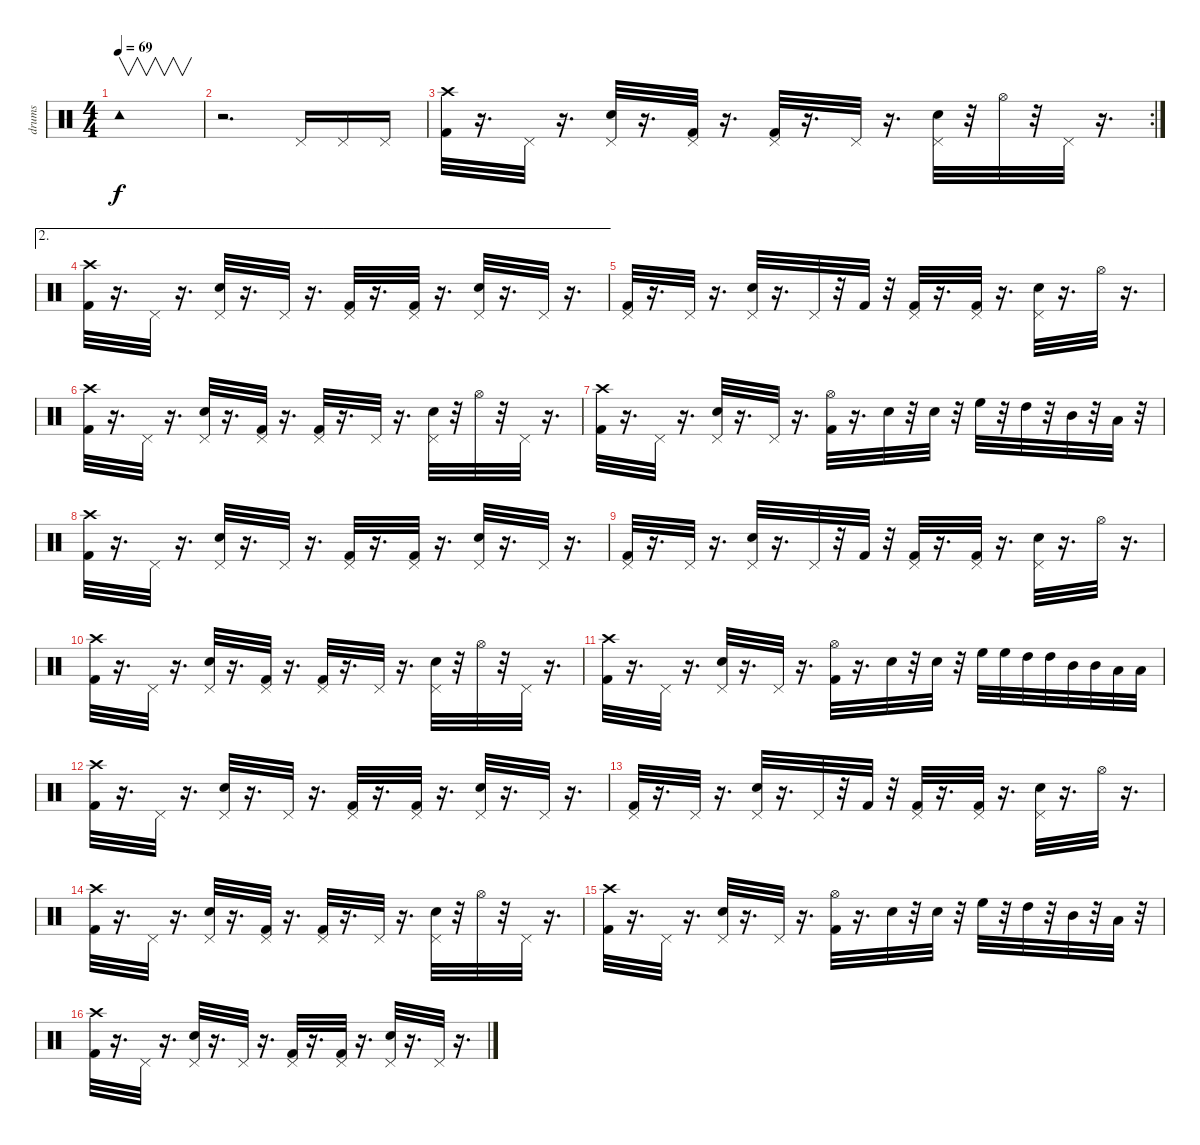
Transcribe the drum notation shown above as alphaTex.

\track ("drums" "drums") {instrument percussion}
\staff {score}
\articulation defaults
\ts (4 4)
\tempo 69
\clef neutral
\ks c "Tambourine (hit)".1{v dy f}
|
r.2{d} "Pedal Hi-Hat (hit)".16 "Pedal Hi-Hat (hit)".16 "Pedal Hi-Hat (hit)".16 |
\rc 2
("Crash high (hit)" "Kick (hit) 2").32 r.16{d} "Pedal Hi-Hat (hit)".32 r.16{d} ("Pedal Hi-Hat (hit)" "Snare (hit) 2").32 r.16{d} ("Pedal Hi-Hat (hit)" "Kick (hit) 2").32 r.16{d} ("Pedal Hi-Hat (hit)" "Kick (hit) 2").32 r.16{d} "Pedal Hi-Hat (hit)".32 r.16{d} ("Pedal Hi-Hat (hit)" "Snare (hit) 2").32 r.32 "Hi-Hat (open)".32 r.32 "Pedal Hi-Hat (hit)".32 r.16{d} |
\ae 2
("Crash high (hit)" "Kick (hit) 2").32 r.16{d} "Pedal Hi-Hat (hit)".32 r.16{d} ("Pedal Hi-Hat (hit)" "Snare (hit) 2").32 r.16{d} "Pedal Hi-Hat (hit)".32 r.16{d} ("Pedal Hi-Hat (hit)" "Kick (hit) 2").32 r.16{d} ("Pedal Hi-Hat (hit)" "Kick (hit) 2").32 r.16{d} ("Pedal Hi-Hat (hit)" "Snare (hit) 2").32 r.16{d} "Pedal Hi-Hat (hit)".32 r.16{d} |
("Pedal Hi-Hat (hit)" "Kick (hit) 2").32 r.16{d} "Pedal Hi-Hat (hit)".32 r.16{d} ("Pedal Hi-Hat (hit)" "Snare (hit) 2").32 r.16{d} "Pedal Hi-Hat (hit)".32 r.32 "Kick (hit) 2".32 r.32 ("Pedal Hi-Hat (hit)" "Kick (hit) 2").32 r.16{d} ("Pedal Hi-Hat (hit)" "Kick (hit) 2").32 r.16{d} ("Pedal Hi-Hat (hit)" "Snare (hit) 2").32 r.16{d} "Hi-Hat (open)".32 r.16{d} |
("Crash high (hit)" "Kick (hit) 2").32 r.16{d} "Pedal Hi-Hat (hit)".32 r.16{d} ("Pedal Hi-Hat (hit)" "Snare (hit) 2").32 r.16{d} ("Pedal Hi-Hat (hit)" "Kick (hit) 2").32 r.16{d} ("Pedal Hi-Hat (hit)" "Kick (hit) 2").32 r.16{d} "Pedal Hi-Hat (hit)".32 r.16{d} ("Pedal Hi-Hat (hit)" "Snare (hit) 2").32 r.32 "Hi-Hat (open)".32 r.32 "Pedal Hi-Hat (hit)".32 r.16{d} |
("Crash high (hit)" "Kick (hit) 2").32 r.16{d} "Pedal Hi-Hat (hit)".32 r.16{d} ("Pedal Hi-Hat (hit)" "Snare (hit) 2").32 r.16{d} "Pedal Hi-Hat (hit)".32 r.16{d} ("Hi-Hat (open)" "Kick (hit) 2").32 r.16{d} "Snare (hit) 2".32 r.32 "Snare (hit) 2".32 r.32 "High Floor Tom (hit)".32 r.32 "High Tom (hit)".32 r.32 "Mid Tom (hit)".32 r.32 "Low Tom (hit)".32 r.32 |
("Crash high (hit)" "Kick (hit) 2").32 r.16{d} "Pedal Hi-Hat (hit)".32 r.16{d} ("Pedal Hi-Hat (hit)" "Snare (hit) 2").32 r.16{d} "Pedal Hi-Hat (hit)".32 r.16{d} ("Pedal Hi-Hat (hit)" "Kick (hit) 2").32 r.16{d} ("Pedal Hi-Hat (hit)" "Kick (hit) 2").32 r.16{d} ("Pedal Hi-Hat (hit)" "Snare (hit) 2").32 r.16{d} "Pedal Hi-Hat (hit)".32 r.16{d} |
("Pedal Hi-Hat (hit)" "Kick (hit) 2").32 r.16{d} "Pedal Hi-Hat (hit)".32 r.16{d} ("Pedal Hi-Hat (hit)" "Snare (hit) 2").32 r.16{d} "Pedal Hi-Hat (hit)".32 r.32 "Kick (hit) 2".32 r.32 ("Pedal Hi-Hat (hit)" "Kick (hit) 2").32 r.16{d} ("Pedal Hi-Hat (hit)" "Kick (hit) 2").32 r.16{d} ("Pedal Hi-Hat (hit)" "Snare (hit) 2").32 r.16{d} "Hi-Hat (open)".32 r.16{d} |
("Crash high (hit)" "Kick (hit) 2").32 r.16{d} "Pedal Hi-Hat (hit)".32 r.16{d} ("Pedal Hi-Hat (hit)" "Snare (hit) 2").32 r.16{d} ("Pedal Hi-Hat (hit)" "Kick (hit) 2").32 r.16{d} ("Pedal Hi-Hat (hit)" "Kick (hit) 2").32 r.16{d} "Pedal Hi-Hat (hit)".32 r.16{d} ("Pedal Hi-Hat (hit)" "Snare (hit) 2").32 r.32 "Hi-Hat (open)".32 r.32 "Pedal Hi-Hat (hit)".32 r.16{d} |
("Crash high (hit)" "Kick (hit) 2").32 r.16{d} "Pedal Hi-Hat (hit)".32 r.16{d} ("Pedal Hi-Hat (hit)" "Snare (hit) 2").32 r.16{d} "Pedal Hi-Hat (hit)".32 r.16{d} ("Hi-Hat (open)" "Kick (hit) 2").32 r.16{d} "Snare (hit) 2".32 r.32 "Snare (hit) 2".32 r.32 "High Floor Tom (hit)".32 "High Floor Tom (hit)".32 "High Tom (hit)".32 "High Tom (hit)".32 "Mid Tom (hit)".32 "Mid Tom (hit)".32 "Low Tom (hit)".32 "Low Tom (hit)".32 |
("Crash high (hit)" "Kick (hit) 2").32 r.16{d} "Pedal Hi-Hat (hit)".32 r.16{d} ("Pedal Hi-Hat (hit)" "Snare (hit) 2").32 r.16{d} "Pedal Hi-Hat (hit)".32 r.16{d} ("Pedal Hi-Hat (hit)" "Kick (hit) 2").32 r.16{d} ("Pedal Hi-Hat (hit)" "Kick (hit) 2").32 r.16{d} ("Pedal Hi-Hat (hit)" "Snare (hit) 2").32 r.16{d} "Pedal Hi-Hat (hit)".32 r.16{d} |
("Pedal Hi-Hat (hit)" "Kick (hit) 2").32 r.16{d} "Pedal Hi-Hat (hit)".32 r.16{d} ("Pedal Hi-Hat (hit)" "Snare (hit) 2").32 r.16{d} "Pedal Hi-Hat (hit)".32 r.32 "Kick (hit) 2".32 r.32 ("Pedal Hi-Hat (hit)" "Kick (hit) 2").32 r.16{d} ("Pedal Hi-Hat (hit)" "Kick (hit) 2").32 r.16{d} ("Pedal Hi-Hat (hit)" "Snare (hit) 2").32 r.16{d} "Hi-Hat (open)".32 r.16{d} |
("Crash high (hit)" "Kick (hit) 2").32 r.16{d} "Pedal Hi-Hat (hit)".32 r.16{d} ("Pedal Hi-Hat (hit)" "Snare (hit) 2").32 r.16{d} ("Pedal Hi-Hat (hit)" "Kick (hit) 2").32 r.16{d} ("Pedal Hi-Hat (hit)" "Kick (hit) 2").32 r.16{d} "Pedal Hi-Hat (hit)".32 r.16{d} ("Pedal Hi-Hat (hit)" "Snare (hit) 2").32 r.32 "Hi-Hat (open)".32 r.32 "Pedal Hi-Hat (hit)".32 r.16{d} |
("Crash high (hit)" "Kick (hit) 2").32 r.16{d} "Pedal Hi-Hat (hit)".32 r.16{d} ("Pedal Hi-Hat (hit)" "Snare (hit) 2").32 r.16{d} "Pedal Hi-Hat (hit)".32 r.16{d} ("Hi-Hat (open)" "Kick (hit) 2").32 r.16{d} "Snare (hit) 2".32 r.32 "Snare (hit) 2".32 r.32 "High Floor Tom (hit)".32 r.32 "High Tom (hit)".32 r.32 "Mid Tom (hit)".32 r.32 "Low Tom (hit)".32 r.32 |
("Crash high (hit)" "Kick (hit) 2").32 r.16{d} "Pedal Hi-Hat (hit)".32 r.16{d} ("Pedal Hi-Hat (hit)" "Snare (hit) 2").32 r.16{d} "Pedal Hi-Hat (hit)".32 r.16{d} ("Pedal Hi-Hat (hit)" "Kick (hit) 2").32 r.16{d} ("Pedal Hi-Hat (hit)" "Kick (hit) 2").32 r.16{d} ("Pedal Hi-Hat (hit)" "Snare (hit) 2").32 r.16{d} "Pedal Hi-Hat (hit)".32 r.16{d}
